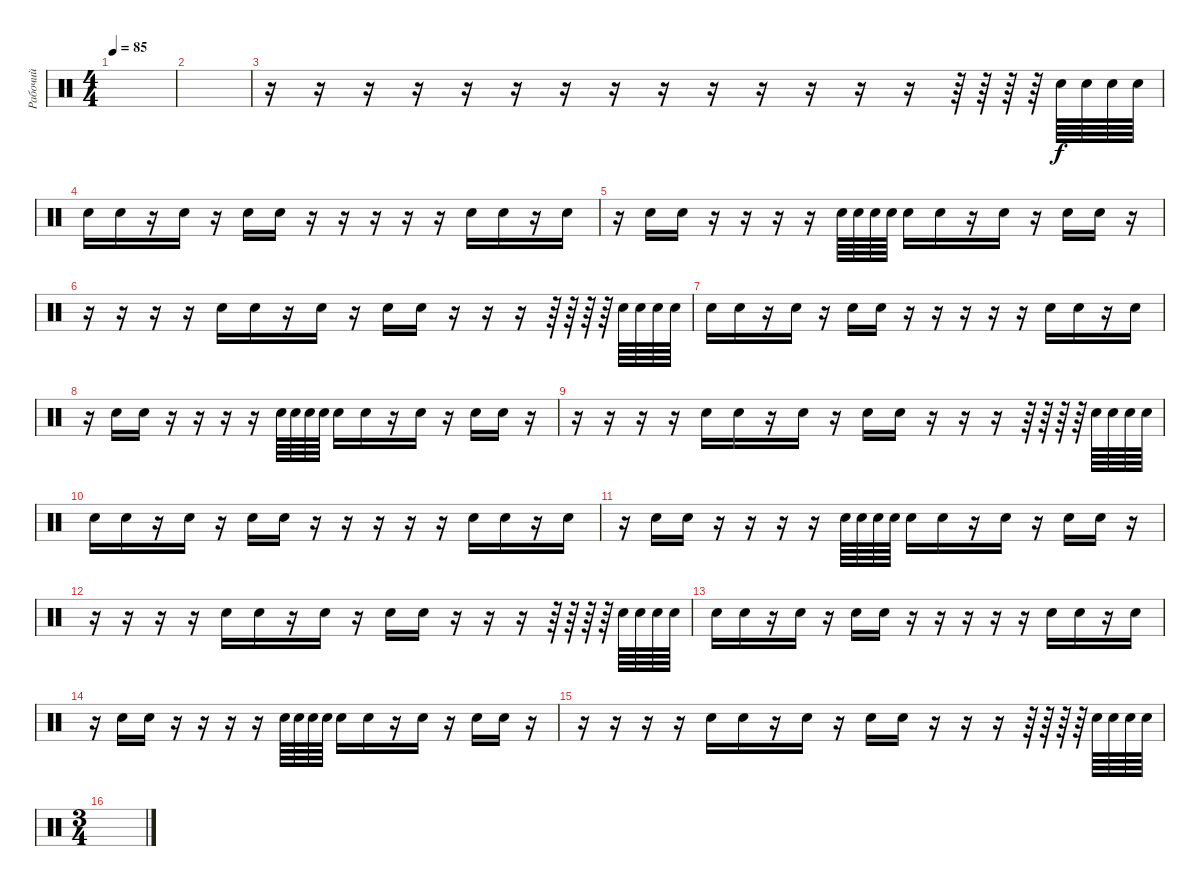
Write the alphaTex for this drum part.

\track ("Рабочий" "Рабочий") {instrument percussion}
\staff {score}
\articulation defaults
\ts (4 4)
\tempo 85
\clef neutral
\ks c
|
|
r.16 r.16 r.16 r.16 r.16 r.16 r.16 r.16 r.16 r.16 r.16 r.16 r.16 r.16 r.64 r.64 r.64 r.64 "Snare (hit) 2".64 "Snare (hit) 2".64 "Snare (hit) 2".64 "Snare (hit) 2".64 |
"Snare (hit) 2".16 "Snare (hit) 2".16 r.16 "Snare (hit) 2".16 r.16 "Snare (hit) 2".16 "Snare (hit) 2".16 r.16 r.16 r.16 r.16 r.16 "Snare (hit) 2".16 "Snare (hit) 2".16 r.16 "Snare (hit) 2".16 |
r.16 "Snare (hit) 2".16 "Snare (hit) 2".16 r.16 r.16 r.16 r.16 "Snare (hit) 2".64 "Snare (hit) 2".64 "Snare (hit) 2".64 "Snare (hit) 2".64 "Snare (hit) 2".16 "Snare (hit) 2".16 r.16 "Snare (hit) 2".16 r.16 "Snare (hit) 2".16 "Snare (hit) 2".16 r.16 |
r.16 r.16 r.16 r.16 "Snare (hit) 2".16 "Snare (hit) 2".16 r.16 "Snare (hit) 2".16 r.16 "Snare (hit) 2".16 "Snare (hit) 2".16 r.16 r.16 r.16 r.64 r.64 r.64 r.64 "Snare (hit) 2".64 "Snare (hit) 2".64 "Snare (hit) 2".64 "Snare (hit) 2".64 |
"Snare (hit) 2".16 "Snare (hit) 2".16 r.16 "Snare (hit) 2".16 r.16 "Snare (hit) 2".16 "Snare (hit) 2".16 r.16 r.16 r.16 r.16 r.16 "Snare (hit) 2".16 "Snare (hit) 2".16 r.16 "Snare (hit) 2".16 |
r.16 "Snare (hit) 2".16 "Snare (hit) 2".16 r.16 r.16 r.16 r.16 "Snare (hit) 2".64 "Snare (hit) 2".64 "Snare (hit) 2".64 "Snare (hit) 2".64 "Snare (hit) 2".16 "Snare (hit) 2".16 r.16 "Snare (hit) 2".16 r.16 "Snare (hit) 2".16 "Snare (hit) 2".16 r.16 |
r.16 r.16 r.16 r.16 "Snare (hit) 2".16 "Snare (hit) 2".16 r.16 "Snare (hit) 2".16 r.16 "Snare (hit) 2".16 "Snare (hit) 2".16 r.16 r.16 r.16 r.64 r.64 r.64 r.64 "Snare (hit) 2".64 "Snare (hit) 2".64 "Snare (hit) 2".64 "Snare (hit) 2".64 |
"Snare (hit) 2".16 "Snare (hit) 2".16 r.16 "Snare (hit) 2".16 r.16 "Snare (hit) 2".16 "Snare (hit) 2".16 r.16 r.16 r.16 r.16 r.16 "Snare (hit) 2".16 "Snare (hit) 2".16 r.16 "Snare (hit) 2".16 |
r.16 "Snare (hit) 2".16 "Snare (hit) 2".16 r.16 r.16 r.16 r.16 "Snare (hit) 2".64 "Snare (hit) 2".64 "Snare (hit) 2".64 "Snare (hit) 2".64 "Snare (hit) 2".16 "Snare (hit) 2".16 r.16 "Snare (hit) 2".16 r.16 "Snare (hit) 2".16 "Snare (hit) 2".16 r.16 |
r.16 r.16 r.16 r.16 "Snare (hit) 2".16 "Snare (hit) 2".16 r.16 "Snare (hit) 2".16 r.16 "Snare (hit) 2".16 "Snare (hit) 2".16 r.16 r.16 r.16 r.64 r.64 r.64 r.64 "Snare (hit) 2".64 "Snare (hit) 2".64 "Snare (hit) 2".64 "Snare (hit) 2".64 |
"Snare (hit) 2".16 "Snare (hit) 2".16 r.16 "Snare (hit) 2".16 r.16 "Snare (hit) 2".16 "Snare (hit) 2".16 r.16 r.16 r.16 r.16 r.16 "Snare (hit) 2".16 "Snare (hit) 2".16 r.16 "Snare (hit) 2".16 |
r.16 "Snare (hit) 2".16 "Snare (hit) 2".16 r.16 r.16 r.16 r.16 "Snare (hit) 2".64 "Snare (hit) 2".64 "Snare (hit) 2".64 "Snare (hit) 2".64 "Snare (hit) 2".16 "Snare (hit) 2".16 r.16 "Snare (hit) 2".16 r.16 "Snare (hit) 2".16 "Snare (hit) 2".16 r.16 |
r.16 r.16 r.16 r.16 "Snare (hit) 2".16 "Snare (hit) 2".16 r.16 "Snare (hit) 2".16 r.16 "Snare (hit) 2".16 "Snare (hit) 2".16 r.16 r.16 r.16 r.64 r.64 r.64 r.64 "Snare (hit) 2".64 "Snare (hit) 2".64 "Snare (hit) 2".64 "Snare (hit) 2".64 |
\ts (3 4)
